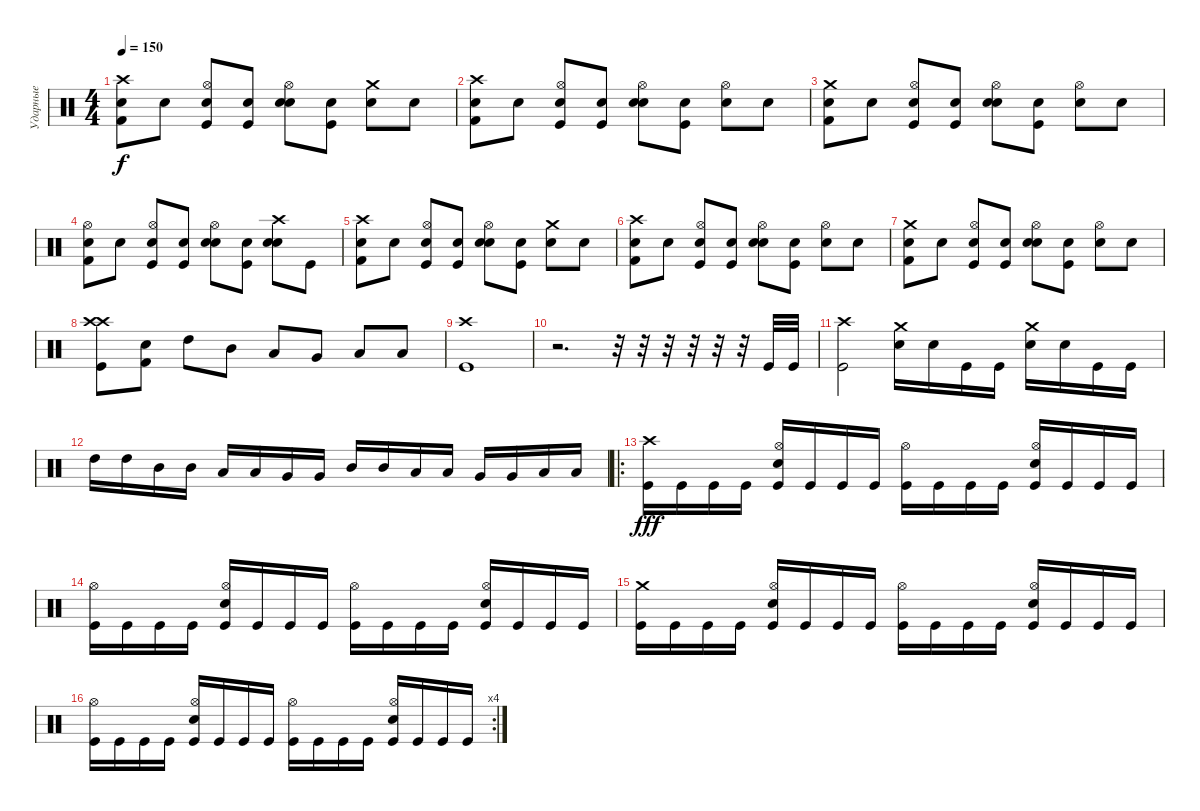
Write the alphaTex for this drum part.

\track ("Ударные" "Ударные") {instrument percussion}
\staff {score}
\articulation defaults
\ts (4 4)
\tempo 150
\clef neutral
\ks c
("Crash high (hit)" "Snare (hit)" "Kick (hit) 2").8{dy f} "Snare (hit)".8 ("Hi-Hat (open)" "Snare (hit)" "Kick (hit)").8 ("Snare (hit)" "Kick (hit)").8 ("Hi-Hat (open)" "Snare (hit) 2" "Snare (hit)").8 ("Snare (hit)" "Kick (hit)").8 ("Crash medium (hit)" "Snare (hit)").8 "Snare (hit)".8 |
("Crash high (hit)" "Snare (hit)" "Kick (hit) 2").8 "Snare (hit)".8 ("Hi-Hat (open)" "Snare (hit)" "Kick (hit)").8 ("Snare (hit)" "Kick (hit)").8 ("Hi-Hat (open)" "Snare (hit) 2" "Snare (hit)").8 ("Snare (hit)" "Kick (hit)").8 ("Hi-Hat (open)" "Snare (hit)").8 "Snare (hit)".8 |
("Crash medium (hit)" "Snare (hit)" "Kick (hit) 2").8 "Snare (hit)".8 ("Hi-Hat (open)" "Snare (hit)" "Kick (hit)").8 ("Snare (hit)" "Kick (hit)").8 ("Hi-Hat (open)" "Snare (hit) 2" "Snare (hit)").8 ("Snare (hit)" "Kick (hit)").8 ("Hi-Hat (open)" "Snare (hit)").8 "Snare (hit)".8 |
("Hi-Hat (open)" "Snare (hit)" "Kick (hit) 2").8 "Snare (hit)".8 ("Hi-Hat (open)" "Snare (hit)" "Kick (hit)").8 ("Snare (hit)" "Kick (hit)").8 ("Hi-Hat (open)" "Snare (hit) 2" "Snare (hit)").8 ("Snare (hit)" "Kick (hit)").8 ("Crash high (hit)" "Snare (hit) 2" "Snare (hit)").8 "Kick (hit)".8 |
("Crash high (hit)" "Snare (hit)" "Kick (hit) 2").8 "Snare (hit)".8 ("Hi-Hat (open)" "Snare (hit)" "Kick (hit)").8 ("Snare (hit)" "Kick (hit)").8 ("Hi-Hat (open)" "Snare (hit) 2" "Snare (hit)").8 ("Snare (hit)" "Kick (hit)").8 ("Crash medium (hit)" "Snare (hit)").8 "Snare (hit)".8 |
("Crash high (hit)" "Snare (hit)" "Kick (hit) 2").8 "Snare (hit)".8 ("Hi-Hat (open)" "Snare (hit)" "Kick (hit)").8 ("Snare (hit)" "Kick (hit)").8 ("Hi-Hat (open)" "Snare (hit) 2" "Snare (hit)").8 ("Snare (hit)" "Kick (hit)").8 ("Hi-Hat (open)" "Snare (hit)").8 "Snare (hit)".8 |
("Crash medium (hit)" "Snare (hit)" "Kick (hit) 2").8 "Snare (hit)".8 ("Hi-Hat (open)" "Snare (hit)" "Kick (hit)").8 ("Snare (hit)" "Kick (hit)").8 ("Hi-Hat (open)" "Snare (hit) 2" "Snare (hit)").8 ("Snare (hit)" "Kick (hit)").8 ("Hi-Hat (open)" "Snare (hit)").8 "Snare (hit)".8 |
("Crash high (hit)" "Crash high (hit)" "Kick (hit)").8 ("Electric Snare (hit)" "Kick (hit) 2").8 "High Tom (hit)".8 "Mid Tom (hit)".8 "Low Tom (hit)".8 "Very Low Tom (hit)".8 "Low Floor Tom (hit)".8 "Low Floor Tom (hit)".8 |
("Crash high (hit)" "Kick (hit)").1 |
r.2{d} r.32 r.32 r.32 r.32 r.32 r.32 "Kick (hit)".32 "Kick (hit)".32 |
("Crash high (hit)" "Kick (hit)").2 ("Snare (hit) 2" "Crash medium (hit)").16 "Snare (hit) 2".16 "Kick (hit)".16 "Kick (hit)".16 ("Snare (hit) 2" "Crash medium (hit)").16 "Snare (hit) 2".16 "Kick (hit)".16 "Kick (hit)".16 |
"High Tom (hit)".16 "High Tom (hit)".16 "Mid Tom (hit)".16 "Mid Tom (hit)".16 "Low Tom (hit)".16 "Low Tom (hit)".16 "Very Low Tom (hit)".16 "Very Low Tom (hit)".16 "Mid Tom (hit)".16 "Mid Tom (hit)".16 "Low Tom (hit)".16 "Low Tom (hit)".16 "Very Low Tom (hit)".16 "Very Low Tom (hit)".16 "Low Floor Tom (hit)".16 "Low Floor Tom (hit)".16 |
\ro
("Crash high (hit)" "Kick (hit)").16{dy fff} "Kick (hit)".16 "Kick (hit)".16 "Kick (hit)".16 ("Snare (hit) 2" "Hi-Hat (open)" "Kick (hit)").16 "Kick (hit)".16 "Kick (hit)".16 "Kick (hit)".16 ("Hi-Hat (open)" "Kick (hit)").16 "Kick (hit)".16 "Kick (hit)".16 "Kick (hit)".16 ("Snare (hit) 2" "Hi-Hat (open)" "Kick (hit)").16 "Kick (hit)".16 "Kick (hit)".16 "Kick (hit)".16 |
("Hi-Hat (open)" "Kick (hit)").16 "Kick (hit)".16 "Kick (hit)".16 "Kick (hit)".16 ("Snare (hit) 2" "Hi-Hat (open)" "Kick (hit)").16 "Kick (hit)".16 "Kick (hit)".16 "Kick (hit)".16 ("Hi-Hat (open)" "Kick (hit)").16 "Kick (hit)".16 "Kick (hit)".16 "Kick (hit)".16 ("Snare (hit) 2" "Hi-Hat (open)" "Kick (hit)").16 "Kick (hit)".16 "Kick (hit)".16 "Kick (hit)".16 |
("Crash medium (hit)" "Kick (hit)").16 "Kick (hit)".16 "Kick (hit)".16 "Kick (hit)".16 ("Snare (hit) 2" "Hi-Hat (open)" "Kick (hit)").16 "Kick (hit)".16 "Kick (hit)".16 "Kick (hit)".16 ("Hi-Hat (open)" "Kick (hit)").16 "Kick (hit)".16 "Kick (hit)".16 "Kick (hit)".16 ("Snare (hit) 2" "Hi-Hat (open)" "Kick (hit)").16 "Kick (hit)".16 "Kick (hit)".16 "Kick (hit)".16 |
\rc 4
("Hi-Hat (open)" "Kick (hit)").16 "Kick (hit)".16 "Kick (hit)".16 "Kick (hit)".16 ("Snare (hit) 2" "Hi-Hat (open)" "Kick (hit)").16 "Kick (hit)".16 "Kick (hit)".16 "Kick (hit)".16 ("Hi-Hat (open)" "Kick (hit)").16 "Kick (hit)".16 "Kick (hit)".16 "Kick (hit)".16 ("Snare (hit) 2" "Hi-Hat (open)" "Kick (hit)").16 "Kick (hit)".16 "Kick (hit)".16 "Kick (hit)".16
